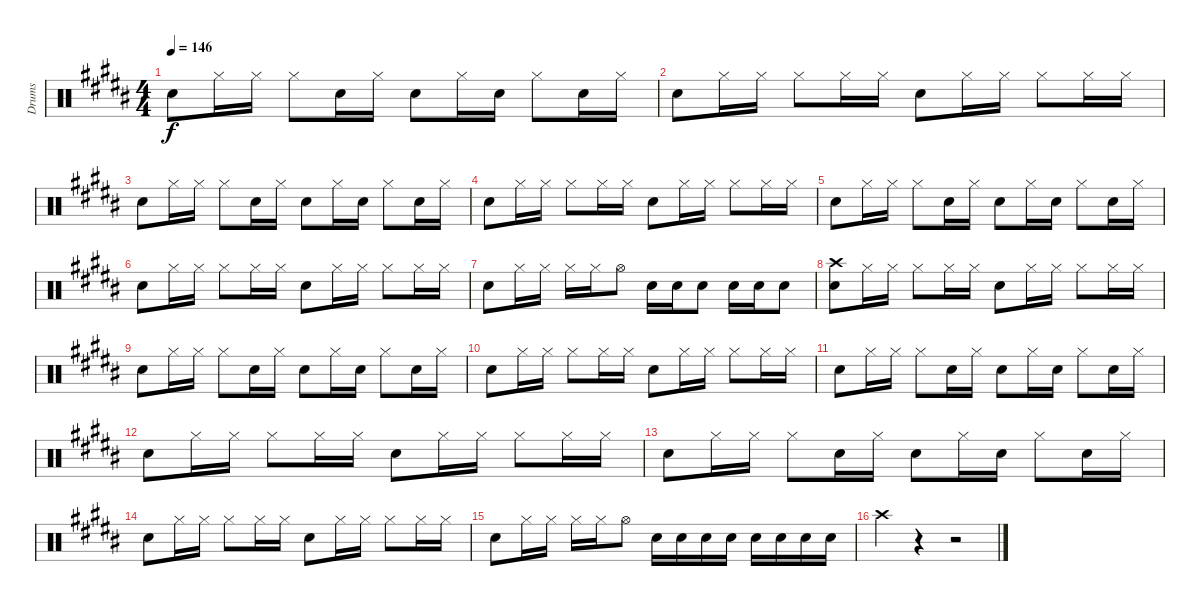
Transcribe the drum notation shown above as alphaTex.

\track ("Drums" "Drums") {instrument percussion}
\staff {score}
\articulation defaults
\ts (4 4)
\tempo 146
\clef neutral
\ks b "Snare (hit) 2".8{dy f} "Hi-Hat (closed)".16 "Hi-Hat (closed)".16 "Hi-Hat (closed)".8 "Snare (hit) 2".16 "Hi-Hat (closed)".16 "Snare (hit) 2".8 "Hi-Hat (closed)".16 "Snare (hit) 2".16 "Hi-Hat (closed)".8 "Snare (hit) 2".16 "Hi-Hat (closed)".16
|
"Snare (hit) 2".8 "Hi-Hat (closed)".16 "Hi-Hat (closed)".16 "Hi-Hat (closed)".8 "Hi-Hat (closed)".16 "Hi-Hat (closed)".16 "Snare (hit) 2".8 "Hi-Hat (closed)".16 "Hi-Hat (closed)".16 "Hi-Hat (closed)".8 "Hi-Hat (closed)".16 "Hi-Hat (closed)".16 |
"Snare (hit) 2".8 "Hi-Hat (closed)".16 "Hi-Hat (closed)".16 "Hi-Hat (closed)".8 "Snare (hit) 2".16 "Hi-Hat (closed)".16 "Snare (hit) 2".8 "Hi-Hat (closed)".16 "Snare (hit) 2".16 "Hi-Hat (closed)".8 "Snare (hit) 2".16 "Hi-Hat (closed)".16 |
"Snare (hit) 2".8 "Hi-Hat (closed)".16 "Hi-Hat (closed)".16 "Hi-Hat (closed)".8 "Hi-Hat (closed)".16 "Hi-Hat (closed)".16 "Snare (hit) 2".8 "Hi-Hat (closed)".16 "Hi-Hat (closed)".16 "Hi-Hat (closed)".8 "Hi-Hat (closed)".16 "Hi-Hat (closed)".16 |
"Snare (hit) 2".8 "Hi-Hat (closed)".16 "Hi-Hat (closed)".16 "Hi-Hat (closed)".8 "Snare (hit) 2".16 "Hi-Hat (closed)".16 "Snare (hit) 2".8 "Hi-Hat (closed)".16 "Snare (hit) 2".16 "Hi-Hat (closed)".8 "Snare (hit) 2".16 "Hi-Hat (closed)".16 |
"Snare (hit) 2".8 "Hi-Hat (closed)".16 "Hi-Hat (closed)".16 "Hi-Hat (closed)".8 "Hi-Hat (closed)".16 "Hi-Hat (closed)".16 "Snare (hit) 2".8 "Hi-Hat (closed)".16 "Hi-Hat (closed)".16 "Hi-Hat (closed)".8 "Hi-Hat (closed)".16 "Hi-Hat (closed)".16 |
"Snare (hit) 2".8 "Hi-Hat (closed)".16 "Hi-Hat (closed)".16 "Hi-Hat (closed)".16 "Hi-Hat (closed)".16 "Hi-Hat (open)".8 "Snare (hit) 2".16 "Snare (hit) 2".16 "Snare (hit) 2".8 "Snare (hit) 2".16 "Snare (hit) 2".16 "Snare (hit) 2".8 |
("Crash high (hit)" "Snare (hit) 2").8 "Hi-Hat (closed)".16 "Hi-Hat (closed)".16 "Hi-Hat (closed)".8 "Hi-Hat (closed)".16 "Hi-Hat (closed)".16 "Snare (hit) 2".8 "Hi-Hat (closed)".16 "Hi-Hat (closed)".16 "Hi-Hat (closed)".8 "Hi-Hat (closed)".16 "Hi-Hat (closed)".16 |
"Snare (hit) 2".8 "Hi-Hat (closed)".16 "Hi-Hat (closed)".16 "Hi-Hat (closed)".8 "Snare (hit) 2".16 "Hi-Hat (closed)".16 "Snare (hit) 2".8 "Hi-Hat (closed)".16 "Snare (hit) 2".16 "Hi-Hat (closed)".8 "Snare (hit) 2".16 "Hi-Hat (closed)".16 |
"Snare (hit) 2".8 "Hi-Hat (closed)".16 "Hi-Hat (closed)".16 "Hi-Hat (closed)".8 "Hi-Hat (closed)".16 "Hi-Hat (closed)".16 "Snare (hit) 2".8 "Hi-Hat (closed)".16 "Hi-Hat (closed)".16 "Hi-Hat (closed)".8 "Hi-Hat (closed)".16 "Hi-Hat (closed)".16 |
"Snare (hit) 2".8 "Hi-Hat (closed)".16 "Hi-Hat (closed)".16 "Hi-Hat (closed)".8 "Snare (hit) 2".16 "Hi-Hat (closed)".16 "Snare (hit) 2".8 "Hi-Hat (closed)".16 "Snare (hit) 2".16 "Hi-Hat (closed)".8 "Snare (hit) 2".16 "Hi-Hat (closed)".16 |
"Snare (hit) 2".8 "Hi-Hat (closed)".16 "Hi-Hat (closed)".16 "Hi-Hat (closed)".8 "Hi-Hat (closed)".16 "Hi-Hat (closed)".16 "Snare (hit) 2".8 "Hi-Hat (closed)".16 "Hi-Hat (closed)".16 "Hi-Hat (closed)".8 "Hi-Hat (closed)".16 "Hi-Hat (closed)".16 |
"Snare (hit) 2".8 "Hi-Hat (closed)".16 "Hi-Hat (closed)".16 "Hi-Hat (closed)".8 "Snare (hit) 2".16 "Hi-Hat (closed)".16 "Snare (hit) 2".8 "Hi-Hat (closed)".16 "Snare (hit) 2".16 "Hi-Hat (closed)".8 "Snare (hit) 2".16 "Hi-Hat (closed)".16 |
"Snare (hit) 2".8 "Hi-Hat (closed)".16 "Hi-Hat (closed)".16 "Hi-Hat (closed)".8 "Hi-Hat (closed)".16 "Hi-Hat (closed)".16 "Snare (hit) 2".8 "Hi-Hat (closed)".16 "Hi-Hat (closed)".16 "Hi-Hat (closed)".8 "Hi-Hat (closed)".16 "Hi-Hat (closed)".16 |
"Snare (hit) 2".8 "Hi-Hat (closed)".16 "Hi-Hat (closed)".16 "Hi-Hat (closed)".16 "Hi-Hat (closed)".16 "Hi-Hat (open)".8 "Snare (hit) 2".16 "Snare (hit) 2".16 "Snare (hit) 2".16 "Snare (hit) 2".16 "Snare (hit) 2".16 "Snare (hit) 2".16 "Snare (hit) 2".16 "Snare (hit) 2".16 |
"Crash high (hit)".4 r.4 r.2
